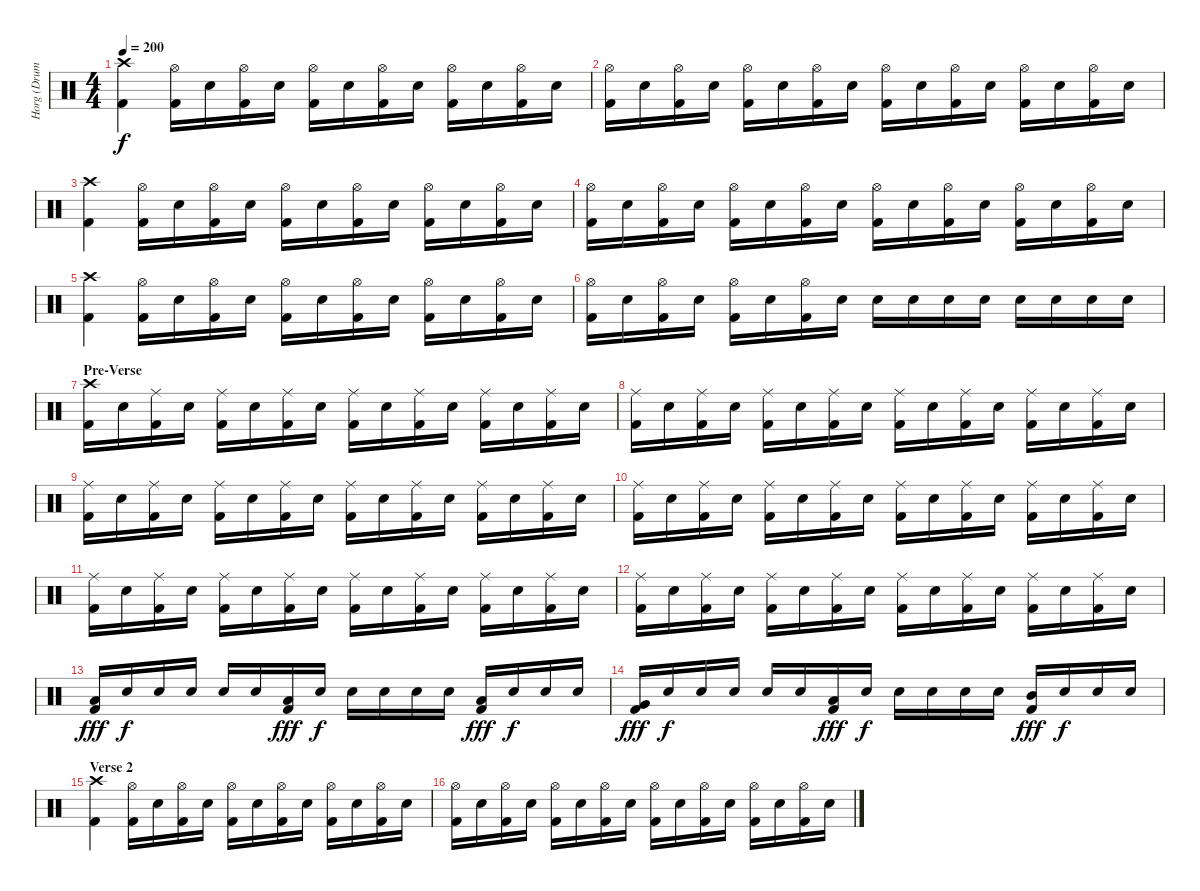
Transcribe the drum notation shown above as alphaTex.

\track ("Horg (Drums)" "Horg (Drum") {instrument percussion}
\staff {score}
\articulation defaults
\ts (4 4)
\tempo 200
\clef neutral
\ks c
("Crash high (hit)" "Kick (hit) 2").4{dy f} ("Hi-Hat (open)" "Kick (hit) 2").16 "Electric Snare (hit)".16 ("Hi-Hat (open)" "Kick (hit) 2").16 "Electric Snare (hit)".16 ("Hi-Hat (open)" "Kick (hit) 2").16 "Electric Snare (hit)".16 ("Hi-Hat (open)" "Kick (hit) 2").16 "Electric Snare (hit)".16 ("Hi-Hat (open)" "Kick (hit) 2").16 "Electric Snare (hit)".16 ("Hi-Hat (open)" "Kick (hit) 2").16 "Electric Snare (hit)".16 |
("Hi-Hat (open)" "Kick (hit) 2").16 "Electric Snare (hit)".16 ("Hi-Hat (open)" "Kick (hit) 2").16 "Electric Snare (hit)".16 ("Hi-Hat (open)" "Kick (hit) 2").16 "Electric Snare (hit)".16 ("Hi-Hat (open)" "Kick (hit) 2").16 "Electric Snare (hit)".16 ("Hi-Hat (open)" "Kick (hit) 2").16 "Electric Snare (hit)".16 ("Hi-Hat (open)" "Kick (hit) 2").16 "Electric Snare (hit)".16 ("Hi-Hat (open)" "Kick (hit) 2").16 "Electric Snare (hit)".16 ("Hi-Hat (open)" "Kick (hit) 2").16 "Electric Snare (hit)".16 |
("Crash high (hit)" "Kick (hit) 2").4 ("Hi-Hat (open)" "Kick (hit) 2").16 "Electric Snare (hit)".16 ("Hi-Hat (open)" "Kick (hit) 2").16 "Electric Snare (hit)".16 ("Hi-Hat (open)" "Kick (hit) 2").16 "Electric Snare (hit)".16 ("Hi-Hat (open)" "Kick (hit) 2").16 "Electric Snare (hit)".16 ("Hi-Hat (open)" "Kick (hit) 2").16 "Electric Snare (hit)".16 ("Hi-Hat (open)" "Kick (hit) 2").16 "Electric Snare (hit)".16 |
("Hi-Hat (open)" "Kick (hit) 2").16 "Electric Snare (hit)".16 ("Hi-Hat (open)" "Kick (hit) 2").16 "Electric Snare (hit)".16 ("Hi-Hat (open)" "Kick (hit) 2").16 "Electric Snare (hit)".16 ("Hi-Hat (open)" "Kick (hit) 2").16 "Electric Snare (hit)".16 ("Hi-Hat (open)" "Kick (hit) 2").16 "Electric Snare (hit)".16 ("Hi-Hat (open)" "Kick (hit) 2").16 "Electric Snare (hit)".16 ("Hi-Hat (open)" "Kick (hit) 2").16 "Electric Snare (hit)".16 ("Hi-Hat (open)" "Kick (hit) 2").16 "Electric Snare (hit)".16 |
("Crash high (hit)" "Kick (hit) 2").4 ("Hi-Hat (open)" "Kick (hit) 2").16 "Electric Snare (hit)".16 ("Hi-Hat (open)" "Kick (hit) 2").16 "Electric Snare (hit)".16 ("Hi-Hat (open)" "Kick (hit) 2").16 "Electric Snare (hit)".16 ("Hi-Hat (open)" "Kick (hit) 2").16 "Electric Snare (hit)".16 ("Hi-Hat (open)" "Kick (hit) 2").16 "Electric Snare (hit)".16 ("Hi-Hat (open)" "Kick (hit) 2").16 "Electric Snare (hit)".16 |
("Hi-Hat (open)" "Kick (hit) 2").16 "Electric Snare (hit)".16 ("Hi-Hat (open)" "Kick (hit) 2").16 "Electric Snare (hit)".16 ("Hi-Hat (open)" "Kick (hit) 2").16 "Electric Snare (hit)".16 ("Hi-Hat (open)" "Kick (hit) 2").16 "Electric Snare (hit)".16 "Electric Snare (hit)".16 "Electric Snare (hit)".16 "Electric Snare (hit)".16 "Electric Snare (hit)".16 "Electric Snare (hit)".16 "Electric Snare (hit)".16 "Electric Snare (hit)".16 "Electric Snare (hit)".16 |
\section ("" "Pre-Verse")
("Crash high (hit)" "Kick (hit) 2").16 "Electric Snare (hit)".16 ("Ride (middle)" "Kick (hit) 2").16 "Electric Snare (hit)".16 ("Ride (middle)" "Kick (hit) 2").16 "Electric Snare (hit)".16 ("Ride (middle)" "Kick (hit) 2").16 "Electric Snare (hit)".16 ("Ride (middle)" "Kick (hit) 2").16 "Electric Snare (hit)".16 ("Ride (middle)" "Kick (hit) 2").16 "Electric Snare (hit)".16 ("Ride (middle)" "Kick (hit) 2").16 "Electric Snare (hit)".16 ("Ride (middle)" "Kick (hit) 2").16 "Electric Snare (hit)".16 |
("Ride (middle)" "Kick (hit) 2").16 "Electric Snare (hit)".16 ("Ride (middle)" "Kick (hit) 2").16 "Electric Snare (hit)".16 ("Ride (middle)" "Kick (hit) 2").16 "Electric Snare (hit)".16 ("Ride (middle)" "Kick (hit) 2").16 "Electric Snare (hit)".16 ("Ride (middle)" "Kick (hit) 2").16 "Electric Snare (hit)".16 ("Ride (middle)" "Kick (hit) 2").16 "Electric Snare (hit)".16 ("Ride (middle)" "Kick (hit) 2").16 "Electric Snare (hit)".16 ("Ride (middle)" "Kick (hit) 2").16 "Electric Snare (hit)".16 |
("Ride (middle)" "Kick (hit) 2").16 "Electric Snare (hit)".16 ("Ride (middle)" "Kick (hit) 2").16 "Electric Snare (hit)".16 ("Ride (middle)" "Kick (hit) 2").16 "Electric Snare (hit)".16 ("Ride (middle)" "Kick (hit) 2").16 "Electric Snare (hit)".16 ("Ride (middle)" "Kick (hit) 2").16 "Electric Snare (hit)".16 ("Ride (middle)" "Kick (hit) 2").16 "Electric Snare (hit)".16 ("Ride (middle)" "Kick (hit) 2").16 "Electric Snare (hit)".16 ("Ride (middle)" "Kick (hit) 2").16 "Electric Snare (hit)".16 |
("Ride (middle)" "Kick (hit) 2").16 "Electric Snare (hit)".16 ("Ride (middle)" "Kick (hit) 2").16 "Electric Snare (hit)".16 ("Ride (middle)" "Kick (hit) 2").16 "Electric Snare (hit)".16 ("Ride (middle)" "Kick (hit) 2").16 "Electric Snare (hit)".16 ("Ride (middle)" "Kick (hit) 2").16 "Electric Snare (hit)".16 ("Ride (middle)" "Kick (hit) 2").16 "Electric Snare (hit)".16 ("Ride (middle)" "Kick (hit) 2").16 "Electric Snare (hit)".16 ("Ride (middle)" "Kick (hit) 2").16 "Electric Snare (hit)".16 |
("Ride (middle)" "Kick (hit) 2").16 "Electric Snare (hit)".16 ("Ride (middle)" "Kick (hit) 2").16 "Electric Snare (hit)".16 ("Ride (middle)" "Kick (hit) 2").16 "Electric Snare (hit)".16 ("Ride (middle)" "Kick (hit) 2").16 "Electric Snare (hit)".16 ("Ride (middle)" "Kick (hit) 2").16 "Electric Snare (hit)".16 ("Ride (middle)" "Kick (hit) 2").16 "Electric Snare (hit)".16 ("Ride (middle)" "Kick (hit) 2").16 "Electric Snare (hit)".16 ("Ride (middle)" "Kick (hit) 2").16 "Electric Snare (hit)".16 |
("Ride (middle)" "Kick (hit) 2").16 "Electric Snare (hit)".16 ("Ride (middle)" "Kick (hit) 2").16 "Electric Snare (hit)".16 ("Ride (middle)" "Kick (hit) 2").16 "Electric Snare (hit)".16 ("Ride (middle)" "Kick (hit) 2").16 "Electric Snare (hit)".16 ("Ride (middle)" "Kick (hit) 2").16 "Electric Snare (hit)".16 ("Ride (middle)" "Kick (hit) 2").16 "Electric Snare (hit)".16 ("Ride (middle)" "Kick (hit) 2").16 "Electric Snare (hit)".16 ("Ride (middle)" "Kick (hit) 2").16 "Electric Snare (hit)".16 |
("Low Floor Tom (hit)" "Kick (hit) 2").16{dy fff} "Electric Snare (hit)".16{dy f} "Electric Snare (hit)".16 "Electric Snare (hit)".16 "Electric Snare (hit)".16 "Electric Snare (hit)".16 ("Low Floor Tom (hit)" "Kick (hit) 2").16{dy fff} "Electric Snare (hit)".16{dy f} "Electric Snare (hit)".16 "Electric Snare (hit)".16 "Electric Snare (hit)".16 "Electric Snare (hit)".16 ("Low Floor Tom (hit)" "Kick (hit) 2").16{dy fff} "Electric Snare (hit)".16{dy f} "Electric Snare (hit)".16 "Electric Snare (hit)".16 |
("Very Low Tom (hit)" "Kick (hit) 2").16{dy fff} "Electric Snare (hit)".16{dy f} "Electric Snare (hit)".16 "Electric Snare (hit)".16 "Electric Snare (hit)".16 "Electric Snare (hit)".16 ("Low Tom (hit)" "Kick (hit) 2").16{dy fff} "Electric Snare (hit)".16{dy f} "Electric Snare (hit)".16 "Electric Snare (hit)".16 "Electric Snare (hit)".16 "Electric Snare (hit)".16 ("Mid Tom (hit)" "Kick (hit) 2").16{dy fff} "Electric Snare (hit)".16{dy f} "Electric Snare (hit)".16 "Electric Snare (hit)".16 |
\section ("" "Verse 2")
("Crash high (hit)" "Kick (hit) 2").4 ("Hi-Hat (open)" "Kick (hit) 2").16 "Electric Snare (hit)".16 ("Hi-Hat (open)" "Kick (hit) 2").16 "Electric Snare (hit)".16 ("Hi-Hat (open)" "Kick (hit) 2").16 "Electric Snare (hit)".16 ("Hi-Hat (open)" "Kick (hit) 2").16 "Electric Snare (hit)".16 ("Hi-Hat (open)" "Kick (hit) 2").16 "Electric Snare (hit)".16 ("Hi-Hat (open)" "Kick (hit) 2").16 "Electric Snare (hit)".16 |
("Hi-Hat (open)" "Kick (hit) 2").16 "Electric Snare (hit)".16 ("Hi-Hat (open)" "Kick (hit) 2").16 "Electric Snare (hit)".16 ("Hi-Hat (open)" "Kick (hit) 2").16 "Electric Snare (hit)".16 ("Hi-Hat (open)" "Kick (hit) 2").16 "Electric Snare (hit)".16 ("Hi-Hat (open)" "Kick (hit) 2").16 "Electric Snare (hit)".16 ("Hi-Hat (open)" "Kick (hit) 2").16 "Electric Snare (hit)".16 ("Hi-Hat (open)" "Kick (hit) 2").16 "Electric Snare (hit)".16 ("Hi-Hat (open)" "Kick (hit) 2").16 "Electric Snare (hit)".16
